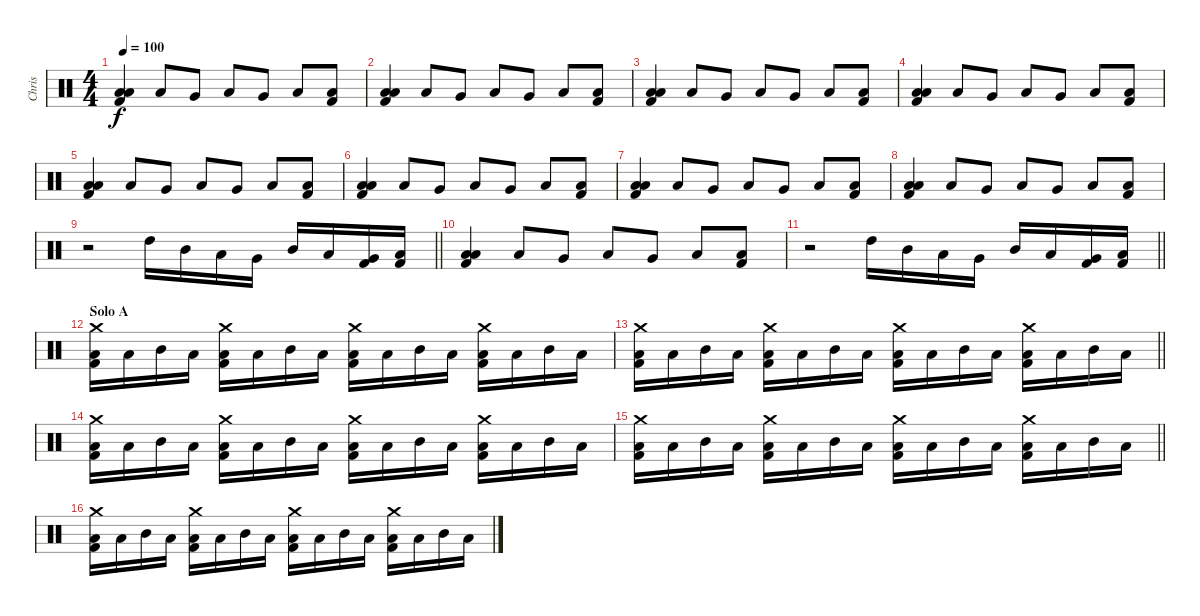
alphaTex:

\track ("Chris" "Chris") {instrument percussion}
\staff {score}
\articulation defaults
\ts (4 4)
\tempo 100
\clef neutral
\ks c
("Low Floor Tom (hit)" "Low Tom (hit)" "Kick (hit) 2").4{dy f} "Low Floor Tom (hit)".8 "Very Low Tom (hit)".8 "Low Tom (hit)".8 "Very Low Tom (hit)".8 "Low Floor Tom (hit)".8 ("Low Floor Tom (hit)" "Kick (hit) 2").8 |
("Low Floor Tom (hit)" "Low Tom (hit)" "Kick (hit) 2").4 "Low Floor Tom (hit)".8 "Very Low Tom (hit)".8 "Low Tom (hit)".8 "Very Low Tom (hit)".8 "Low Floor Tom (hit)".8 ("Low Floor Tom (hit)" "Kick (hit) 2").8 |
("Low Floor Tom (hit)" "Low Tom (hit)" "Kick (hit) 2").4 "Low Floor Tom (hit)".8 "Very Low Tom (hit)".8 "Low Tom (hit)".8 "Very Low Tom (hit)".8 "Low Floor Tom (hit)".8 ("Low Floor Tom (hit)" "Kick (hit) 2").8 |
("Low Floor Tom (hit)" "Low Tom (hit)" "Kick (hit) 2").4 "Low Floor Tom (hit)".8 "Very Low Tom (hit)".8 "Low Tom (hit)".8 "Very Low Tom (hit)".8 "Low Floor Tom (hit)".8 ("Low Floor Tom (hit)" "Kick (hit) 2").8 |
("Low Floor Tom (hit)" "Low Tom (hit)" "Kick (hit) 2").4 "Low Floor Tom (hit)".8 "Very Low Tom (hit)".8 "Low Tom (hit)".8 "Very Low Tom (hit)".8 "Low Floor Tom (hit)".8 ("Low Floor Tom (hit)" "Kick (hit) 2").8 |
("Low Floor Tom (hit)" "Low Tom (hit)" "Kick (hit) 2").4 "Low Floor Tom (hit)".8 "Very Low Tom (hit)".8 "Low Tom (hit)".8 "Very Low Tom (hit)".8 "Low Floor Tom (hit)".8 ("Low Floor Tom (hit)" "Kick (hit) 2").8 |
("Low Floor Tom (hit)" "Low Tom (hit)" "Kick (hit) 2").4 "Low Floor Tom (hit)".8 "Very Low Tom (hit)".8 "Low Tom (hit)".8 "Very Low Tom (hit)".8 "Low Floor Tom (hit)".8 ("Low Floor Tom (hit)" "Kick (hit) 2").8 |
("Low Floor Tom (hit)" "Low Tom (hit)" "Kick (hit) 2").4 "Low Floor Tom (hit)".8 "Very Low Tom (hit)".8 "Low Tom (hit)".8 "Very Low Tom (hit)".8 "Low Floor Tom (hit)".8 ("Low Floor Tom (hit)" "Kick (hit) 2").8 |
\barLineRight lightlight
r.2 "High Tom (hit)".16 "Mid Tom (hit)".16 "Low Tom (hit)".16 "Very Low Tom (hit)".16 "Mid Tom (hit)".16 "Low Tom (hit)".16 ("Very Low Tom (hit)" "Kick (hit) 2").16 ("Low Floor Tom (hit)" "Kick (hit) 2").16 |
("Low Floor Tom (hit)" "Low Tom (hit)" "Kick (hit) 2").4 "Low Floor Tom (hit)".8 "Very Low Tom (hit)".8 "Low Tom (hit)".8 "Very Low Tom (hit)".8 "Low Floor Tom (hit)".8 ("Low Floor Tom (hit)" "Kick (hit) 2").8 |
\barLineRight lightlight
r.2 "High Tom (hit)".16 "Mid Tom (hit)".16 "Low Tom (hit)".16 "Very Low Tom (hit)".16 "Mid Tom (hit)".16 "Low Tom (hit)".16 ("Very Low Tom (hit)" "Kick (hit) 2").16 ("Low Floor Tom (hit)" "Kick (hit) 2").16 |
\section ("" "Solo A")
("Crash medium (hit)" "Low Tom (hit)" "Kick (hit) 2").16 "Low Tom (hit)".16 "Mid Tom (hit)".16 "Low Tom (hit)".16 ("Crash medium (hit)" "Low Tom (hit)" "Kick (hit) 2").16 "Low Tom (hit)".16 "Mid Tom (hit)".16 "Low Tom (hit)".16 ("Crash medium (hit)" "Low Tom (hit)" "Kick (hit) 2").16 "Low Tom (hit)".16 "Mid Tom (hit)".16 "Low Tom (hit)".16 ("Crash medium (hit)" "Low Tom (hit)" "Kick (hit) 2").16 "Low Tom (hit)".16 "Mid Tom (hit)".16 "Low Tom (hit)".16 |
\barLineRight lightlight
("Crash medium (hit)" "Low Tom (hit)" "Kick (hit) 2").16 "Low Tom (hit)".16 "Mid Tom (hit)".16 "Low Tom (hit)".16 ("Crash medium (hit)" "Low Tom (hit)" "Kick (hit) 2").16 "Low Tom (hit)".16 "Mid Tom (hit)".16 "Low Tom (hit)".16 ("Crash medium (hit)" "Low Tom (hit)" "Kick (hit) 2").16 "Low Tom (hit)".16 "Mid Tom (hit)".16 "Low Tom (hit)".16 ("Crash medium (hit)" "Low Tom (hit)" "Kick (hit) 2").16 "Low Tom (hit)".16 "Mid Tom (hit)".16 "Low Tom (hit)".16 |
("Crash medium (hit)" "Low Tom (hit)" "Kick (hit) 2").16 "Low Tom (hit)".16 "Mid Tom (hit)".16 "Low Tom (hit)".16 ("Crash medium (hit)" "Low Tom (hit)" "Kick (hit) 2").16 "Low Tom (hit)".16 "Mid Tom (hit)".16 "Low Tom (hit)".16 ("Crash medium (hit)" "Low Tom (hit)" "Kick (hit) 2").16 "Low Tom (hit)".16 "Mid Tom (hit)".16 "Low Tom (hit)".16 ("Crash medium (hit)" "Low Tom (hit)" "Kick (hit) 2").16 "Low Tom (hit)".16 "Mid Tom (hit)".16 "Low Tom (hit)".16 |
\barLineRight lightlight
("Crash medium (hit)" "Low Tom (hit)" "Kick (hit) 2").16 "Low Tom (hit)".16 "Mid Tom (hit)".16 "Low Tom (hit)".16 ("Crash medium (hit)" "Low Tom (hit)" "Kick (hit) 2").16 "Low Tom (hit)".16 "Mid Tom (hit)".16 "Low Tom (hit)".16 ("Crash medium (hit)" "Low Tom (hit)" "Kick (hit) 2").16 "Low Tom (hit)".16 "Mid Tom (hit)".16 "Low Tom (hit)".16 ("Crash medium (hit)" "Low Tom (hit)" "Kick (hit) 2").16 "Low Tom (hit)".16 "Mid Tom (hit)".16 "Low Tom (hit)".16 |
("Crash medium (hit)" "Low Tom (hit)" "Kick (hit) 2").16 "Low Tom (hit)".16 "Mid Tom (hit)".16 "Low Tom (hit)".16 ("Crash medium (hit)" "Low Tom (hit)" "Kick (hit) 2").16 "Low Tom (hit)".16 "Mid Tom (hit)".16 "Low Tom (hit)".16 ("Crash medium (hit)" "Low Tom (hit)" "Kick (hit) 2").16 "Low Tom (hit)".16 "Mid Tom (hit)".16 "Low Tom (hit)".16 ("Crash medium (hit)" "Low Tom (hit)" "Kick (hit) 2").16 "Low Tom (hit)".16 "Mid Tom (hit)".16 "Low Tom (hit)".16
